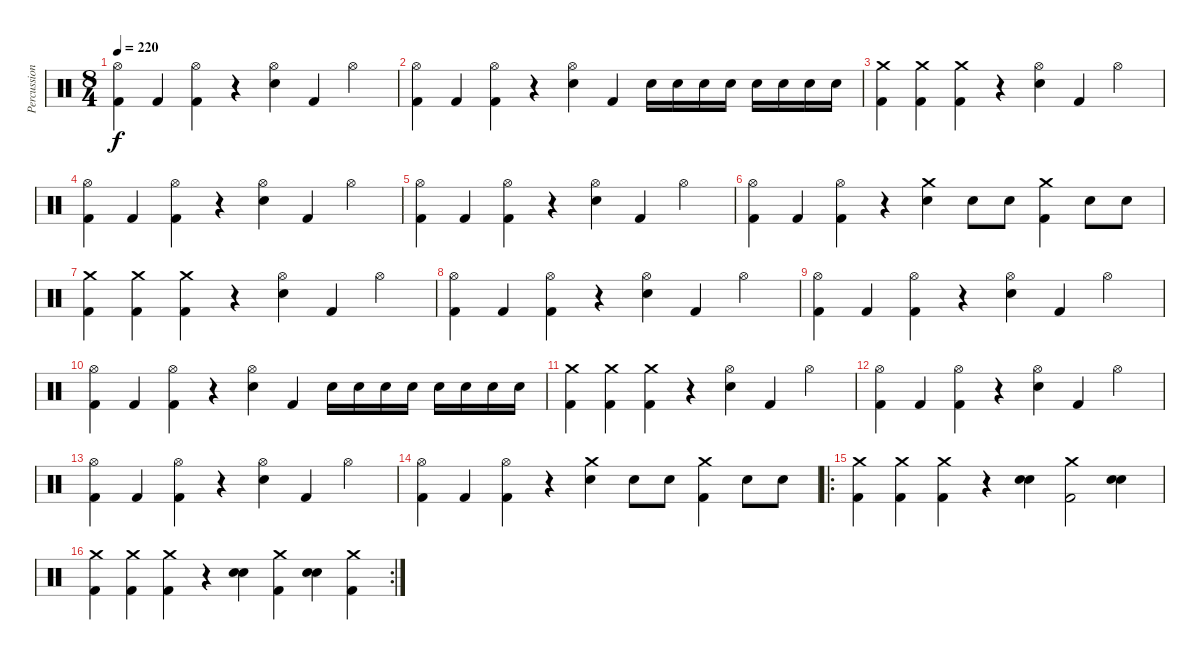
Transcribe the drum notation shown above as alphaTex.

\track ("Percussion" "Percussion") {instrument percussion}
\staff {score}
\articulation defaults
\ts (8 4)
\tempo 220
\clef neutral
\ks c
("Hi-Hat (open)" "Kick (hit) 2").4{dy f} "Kick (hit) 2".4 ("Hi-Hat (open)" "Kick (hit) 2").4 r.4 ("Hi-Hat (open)" "Electric Snare (hit)").4 "Kick (hit) 2".4 "Hi-Hat (open)".2 |
("Hi-Hat (open)" "Kick (hit) 2").4 "Kick (hit) 2".4 ("Hi-Hat (open)" "Kick (hit) 2").4 r.4 ("Hi-Hat (open)" "Electric Snare (hit)").4 "Kick (hit) 2".4 "Electric Snare (hit)".16 "Electric Snare (hit)".16 "Electric Snare (hit)".16 "Electric Snare (hit)".16 "Electric Snare (hit)".16 "Electric Snare (hit)".16 "Electric Snare (hit)".16 "Electric Snare (hit)".16 |
("Crash medium (hit)" "Kick (hit) 2").4 ("Crash medium (hit)" "Kick (hit) 2").4 ("Crash medium (hit)" "Kick (hit) 2").4 r.4 ("Hi-Hat (open)" "Electric Snare (hit)").4 "Kick (hit) 2".4 "Hi-Hat (open)".2 |
("Hi-Hat (open)" "Kick (hit) 2").4 "Kick (hit) 2".4 ("Hi-Hat (open)" "Kick (hit) 2").4 r.4 ("Hi-Hat (open)" "Electric Snare (hit)").4 "Kick (hit) 2".4 "Hi-Hat (open)".2 |
("Hi-Hat (open)" "Kick (hit) 2").4 "Kick (hit) 2".4 ("Hi-Hat (open)" "Kick (hit) 2").4 r.4 ("Hi-Hat (open)" "Electric Snare (hit)").4 "Kick (hit) 2".4 "Hi-Hat (open)".2 |
("Hi-Hat (open)" "Kick (hit) 2").4 "Kick (hit) 2".4 ("Hi-Hat (open)" "Kick (hit) 2").4 r.4 ("Crash medium (hit)" "Electric Snare (hit)").4 "Electric Snare (hit)".8 "Electric Snare (hit)".8 ("Crash medium (hit)" "Kick (hit) 2").4 "Electric Snare (hit)".8 "Electric Snare (hit)".8 |
("Crash medium (hit)" "Kick (hit) 2").4 ("Crash medium (hit)" "Kick (hit) 2").4 ("Crash medium (hit)" "Kick (hit) 2").4 r.4 ("Hi-Hat (open)" "Electric Snare (hit)").4 "Kick (hit) 2".4 "Hi-Hat (open)".2 |
("Hi-Hat (open)" "Kick (hit) 2").4 "Kick (hit) 2".4 ("Hi-Hat (open)" "Kick (hit) 2").4 r.4 ("Hi-Hat (open)" "Electric Snare (hit)").4 "Kick (hit) 2".4 "Hi-Hat (open)".2 |
("Hi-Hat (open)" "Kick (hit) 2").4 "Kick (hit) 2".4 ("Hi-Hat (open)" "Kick (hit) 2").4 r.4 ("Hi-Hat (open)" "Electric Snare (hit)").4 "Kick (hit) 2".4 "Hi-Hat (open)".2 |
("Hi-Hat (open)" "Kick (hit) 2").4 "Kick (hit) 2".4 ("Hi-Hat (open)" "Kick (hit) 2").4 r.4 ("Hi-Hat (open)" "Electric Snare (hit)").4 "Kick (hit) 2".4 "Electric Snare (hit)".16 "Electric Snare (hit)".16 "Electric Snare (hit)".16 "Electric Snare (hit)".16 "Electric Snare (hit)".16 "Electric Snare (hit)".16 "Electric Snare (hit)".16 "Electric Snare (hit)".16 |
("Crash medium (hit)" "Kick (hit) 2").4 ("Crash medium (hit)" "Kick (hit) 2").4 ("Crash medium (hit)" "Kick (hit) 2").4 r.4 ("Hi-Hat (open)" "Electric Snare (hit)").4 "Kick (hit) 2".4 "Hi-Hat (open)".2 |
("Hi-Hat (open)" "Kick (hit) 2").4 "Kick (hit) 2".4 ("Hi-Hat (open)" "Kick (hit) 2").4 r.4 ("Hi-Hat (open)" "Electric Snare (hit)").4 "Kick (hit) 2".4 "Hi-Hat (open)".2 |
("Hi-Hat (open)" "Kick (hit) 2").4 "Kick (hit) 2".4 ("Hi-Hat (open)" "Kick (hit) 2").4 r.4 ("Hi-Hat (open)" "Electric Snare (hit)").4 "Kick (hit) 2".4 "Hi-Hat (open)".2 |
("Hi-Hat (open)" "Kick (hit) 2").4 "Kick (hit) 2".4 ("Hi-Hat (open)" "Kick (hit) 2").4 r.4 ("Crash medium (hit)" "Electric Snare (hit)").4 "Electric Snare (hit)".8 "Electric Snare (hit)".8 ("Crash medium (hit)" "Kick (hit) 2").4 "Electric Snare (hit)".8 "Electric Snare (hit)".8 |
\ro
("Crash medium (hit)" "Kick (hit) 2").4 ("Crash medium (hit)" "Kick (hit) 2").4 ("Crash medium (hit)" "Kick (hit) 2").4 r.4 ("Electric Snare (hit)" "Electric Snare (hit)").4 ("Crash medium (hit)" "Kick (hit) 2").2 ("Electric Snare (hit)" "Electric Snare (hit)").4 |
\rc 2
("Crash medium (hit)" "Kick (hit) 2").4 ("Crash medium (hit)" "Kick (hit) 2").4 ("Crash medium (hit)" "Kick (hit) 2").4 r.4 ("Electric Snare (hit)" "Electric Snare (hit)").4 ("Crash medium (hit)" "Kick (hit) 2").4 ("Electric Snare (hit)" "Electric Snare (hit)").4 ("Crash medium (hit)" "Kick (hit) 2").4
